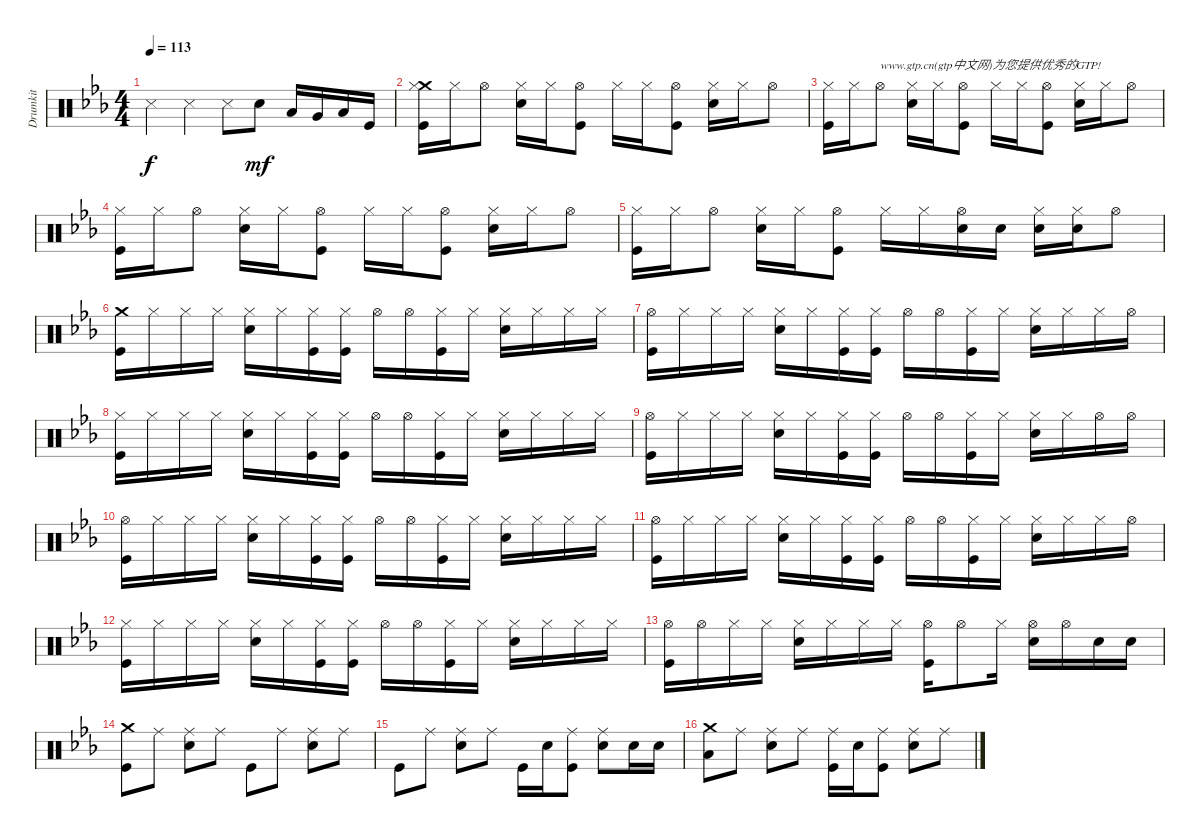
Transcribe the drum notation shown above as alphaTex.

\track ("Drumkit" "Drumkit") {instrument percussion}
\staff {score}
\articulation defaults
\ts (4 4)
\tempo 113
\clef neutral
\ks eb "Snare (side stick) 3".4{dy f} "Snare (side stick) 3".4 "Snare (side stick) 3".8 "Snare (hit) 2".8{dy mf} "Low Tom (hit)".16 "Very Low Tom (hit)".16 "Low Floor Tom (hit)".16 "Kick (hit)".16
|
("Crash medium (hit)" "Hi-Hat (closed)" "Kick (hit)").16 "Hi-Hat (closed)".16 "Hi-Hat (open)".8 ("Hi-Hat (closed)" "Snare (hit) 2").16 "Hi-Hat (closed)".16 ("Hi-Hat (open)" "Kick (hit)").8 "Hi-Hat (closed)".16 "Hi-Hat (closed)".16 ("Hi-Hat (open)" "Kick (hit)").8 ("Hi-Hat (closed)" "Snare (hit) 2").16 "Hi-Hat (closed)".16 "Hi-Hat (open)".8 |
("Hi-Hat (closed)" "Kick (hit)").16 "Hi-Hat (closed)".16 "Hi-Hat (open)".8{txt "www.gtp.cn(gtp中文网)为您提供优秀的GTP!"} ("Hi-Hat (closed)" "Snare (hit) 2").16 "Hi-Hat (closed)".16 ("Hi-Hat (open)" "Kick (hit)").8 "Hi-Hat (closed)".16 "Hi-Hat (closed)".16 ("Hi-Hat (open)" "Kick (hit)").8 ("Hi-Hat (closed)" "Snare (hit) 2").16 "Hi-Hat (closed)".16 "Hi-Hat (open)".8 |
("Hi-Hat (closed)" "Kick (hit)").16 "Hi-Hat (closed)".16 "Hi-Hat (open)".8 ("Hi-Hat (closed)" "Snare (hit) 2").16 "Hi-Hat (closed)".16 ("Hi-Hat (open)" "Kick (hit)").8 "Hi-Hat (closed)".16 "Hi-Hat (closed)".16 ("Hi-Hat (open)" "Kick (hit)").8 ("Hi-Hat (closed)" "Snare (hit) 2").16 "Hi-Hat (closed)".16 "Hi-Hat (open)".8 |
("Hi-Hat (closed)" "Kick (hit)").16 "Hi-Hat (closed)".16 "Hi-Hat (open)".8 ("Hi-Hat (closed)" "Snare (hit) 2").16 "Hi-Hat (closed)".16 ("Hi-Hat (open)" "Kick (hit)").8 "Hi-Hat (closed)".16 "Hi-Hat (closed)".16 ("Hi-Hat (open)" "Snare (hit) 2").16 "Snare (hit) 2".16 ("Hi-Hat (closed)" "Snare (hit) 2").16 ("Hi-Hat (closed)" "Snare (hit) 2").16 "Hi-Hat (open)".8 |
("Crash medium (hit)" "Kick (hit)").16 "Hi-Hat (closed)".16 "Hi-Hat (closed)".16 "Hi-Hat (closed)".16 ("Hi-Hat (closed)" "Snare (hit) 2").16 "Hi-Hat (closed)".16 ("Hi-Hat (closed)" "Kick (hit)").16 ("Hi-Hat (closed)" "Kick (hit)").16 "Hi-Hat (open)".16 "Hi-Hat (open)".16 ("Hi-Hat (closed)" "Kick (hit)").16 "Hi-Hat (closed)".16 ("Hi-Hat (closed)" "Snare (hit) 2").16 "Hi-Hat (closed)".16 "Hi-Hat (closed)".16 "Hi-Hat (closed)".16 |
("Hi-Hat (open)" "Kick (hit)").16 "Hi-Hat (closed)".16 "Hi-Hat (closed)".16 "Hi-Hat (closed)".16 ("Hi-Hat (closed)" "Snare (hit) 2").16 "Hi-Hat (closed)".16 ("Hi-Hat (closed)" "Kick (hit)").16 ("Hi-Hat (closed)" "Kick (hit)").16 "Hi-Hat (open)".16 "Hi-Hat (open)".16 ("Hi-Hat (closed)" "Kick (hit)").16 "Hi-Hat (closed)".16 ("Hi-Hat (closed)" "Snare (hit) 2").16 "Hi-Hat (closed)".16 "Hi-Hat (closed)".16 "Hi-Hat (open)".16 |
("Hi-Hat (closed)" "Kick (hit)").16 "Hi-Hat (closed)".16 "Hi-Hat (closed)".16 "Hi-Hat (closed)".16 ("Hi-Hat (closed)" "Snare (hit) 2").16 "Hi-Hat (closed)".16 ("Hi-Hat (closed)" "Kick (hit)").16 ("Hi-Hat (closed)" "Kick (hit)").16 "Hi-Hat (open)".16 "Hi-Hat (open)".16 ("Hi-Hat (closed)" "Kick (hit)").16 "Hi-Hat (closed)".16 ("Hi-Hat (closed)" "Snare (hit) 2").16 "Hi-Hat (closed)".16 "Hi-Hat (closed)".16 "Hi-Hat (closed)".16 |
("Hi-Hat (open)" "Kick (hit)").16 "Hi-Hat (closed)".16 "Hi-Hat (closed)".16 "Hi-Hat (closed)".16 ("Hi-Hat (closed)" "Snare (hit) 2").16 "Hi-Hat (closed)".16 ("Hi-Hat (closed)" "Kick (hit)").16 ("Hi-Hat (closed)" "Kick (hit)").16 "Hi-Hat (open)".16 "Hi-Hat (open)".16 ("Hi-Hat (closed)" "Kick (hit)").16 "Hi-Hat (closed)".16 ("Hi-Hat (closed)" "Snare (hit) 2").16 "Hi-Hat (closed)".16 "Hi-Hat (open)".16 "Hi-Hat (open)".16 |
("Hi-Hat (open)" "Kick (hit)").16 "Hi-Hat (closed)".16 "Hi-Hat (closed)".16 "Hi-Hat (closed)".16 ("Hi-Hat (closed)" "Snare (hit) 2").16 "Hi-Hat (closed)".16 ("Hi-Hat (closed)" "Kick (hit)").16 ("Hi-Hat (closed)" "Kick (hit)").16 "Hi-Hat (open)".16 "Hi-Hat (open)".16 ("Hi-Hat (closed)" "Kick (hit)").16 "Hi-Hat (closed)".16 ("Hi-Hat (closed)" "Snare (hit) 2").16 "Hi-Hat (closed)".16 "Hi-Hat (closed)".16 "Hi-Hat (closed)".16 |
("Hi-Hat (open)" "Kick (hit)").16 "Hi-Hat (closed)".16 "Hi-Hat (closed)".16 "Hi-Hat (closed)".16 ("Hi-Hat (closed)" "Snare (hit) 2").16 "Hi-Hat (closed)".16 ("Hi-Hat (closed)" "Kick (hit)").16 ("Hi-Hat (closed)" "Kick (hit)").16 "Hi-Hat (open)".16 "Hi-Hat (open)".16 ("Hi-Hat (closed)" "Kick (hit)").16 "Hi-Hat (closed)".16 ("Hi-Hat (closed)" "Snare (hit) 2").16 "Hi-Hat (closed)".16 "Hi-Hat (closed)".16 "Hi-Hat (open)".16 |
("Hi-Hat (closed)" "Kick (hit)").16 "Hi-Hat (closed)".16 "Hi-Hat (closed)".16 "Hi-Hat (closed)".16 ("Hi-Hat (closed)" "Snare (hit) 2").16 "Hi-Hat (closed)".16 ("Hi-Hat (closed)" "Kick (hit)").16 ("Hi-Hat (closed)" "Kick (hit)").16 "Hi-Hat (open)".16 "Hi-Hat (open)".16 ("Hi-Hat (closed)" "Kick (hit)").16 "Hi-Hat (closed)".16 ("Hi-Hat (closed)" "Snare (hit) 2").16 "Hi-Hat (closed)".16 "Hi-Hat (closed)".16 "Hi-Hat (closed)".16 |
("Hi-Hat (open)" "Kick (hit)").16 "Hi-Hat (open)".16 "Hi-Hat (closed)".16 "Hi-Hat (closed)".16 ("Hi-Hat (closed)" "Snare (hit) 2").16 "Hi-Hat (closed)".16 "Hi-Hat (closed)".16 "Hi-Hat (closed)".16 ("Hi-Hat (open)" "Kick (hit)").16 "Hi-Hat (open)".8 "Hi-Hat (closed)".16 ("Hi-Hat (open)" "Snare (hit) 2").16 "Hi-Hat (open)".16 "Snare (hit) 2".16 "Snare (hit) 2".16 |
("Crash medium (hit)" "Kick (hit)").8 "Ride (middle)".8 ("Ride (middle)" "Snare (hit) 2").8 "Ride (middle)".8 "Kick (hit)".8 "Ride (middle)".8 ("Ride (middle)" "Snare (hit) 2").8 "Ride (middle)".8 |
"Kick (hit)".8 "Ride (middle)".8 ("Ride (middle)" "Snare (hit) 2").8 "Ride (middle)".8 "Kick (hit)".16 "Snare (hit) 2".16 ("Kick (hit)" "Ride (middle)").8 ("Snare (hit) 2" "Ride (middle)").8 "Snare (hit) 2".16 "Snare (hit) 2".16 |
("Low Floor Tom (hit)" "Crash medium (hit)").8 "Ride (middle)".8 ("Ride (middle)" "Snare (hit) 2").8 "Ride (middle)".8 ("Kick (hit)" "Ride (middle)").16 "Snare (hit) 2".16 ("Kick (hit)" "Ride (middle)").8 ("Snare (hit) 2" "Ride (middle)").8 "Ride (middle)".8
